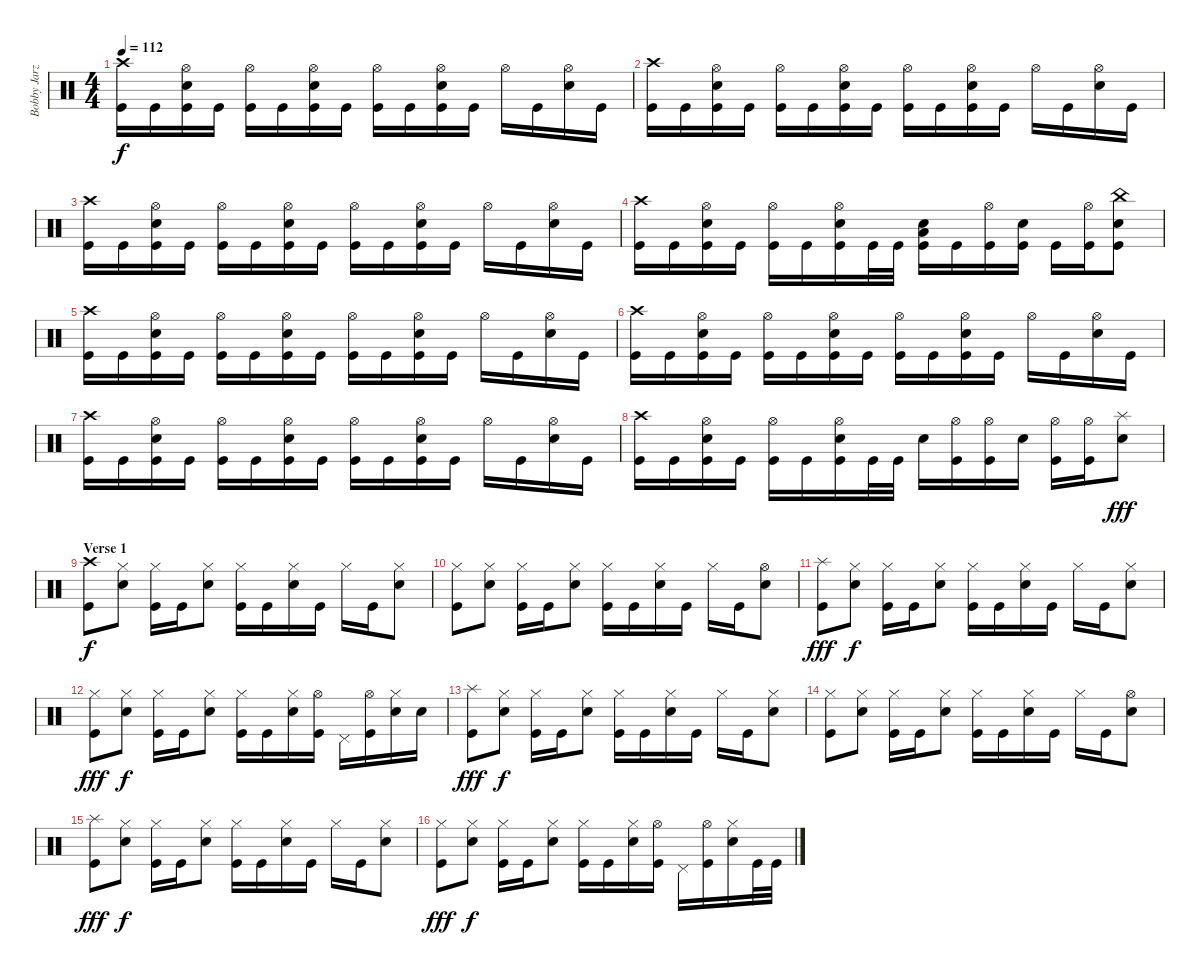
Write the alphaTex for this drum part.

\track ("Bobby Jarzombek" "Bobby Jarz") {instrument percussion}
\staff {score}
\articulation defaults
\ts (4 4)
\tempo 112
\clef neutral
\ks c
("Crash high (hit)" "Kick (hit)").16{dy f} "Kick (hit)".16 ("Hi-Hat (open)" "Electric Snare (hit)" "Kick (hit)").16 "Kick (hit)".16 ("Hi-Hat (open)" "Kick (hit)").16 "Kick (hit)".16 ("Hi-Hat (open)" "Electric Snare (hit)" "Kick (hit)").16 "Kick (hit)".16 ("Hi-Hat (open)" "Kick (hit)").16 "Kick (hit)".16 ("Hi-Hat (open)" "Electric Snare (hit)" "Kick (hit)").16 "Kick (hit)".16 "Hi-Hat (open)".16 "Kick (hit)".16 ("Hi-Hat (open)" "Electric Snare (hit)").16 "Kick (hit)".16 |
("Crash high (hit)" "Kick (hit)").16 "Kick (hit)".16 ("Hi-Hat (open)" "Electric Snare (hit)" "Kick (hit)").16 "Kick (hit)".16 ("Hi-Hat (open)" "Kick (hit)").16 "Kick (hit)".16 ("Hi-Hat (open)" "Electric Snare (hit)" "Kick (hit)").16 "Kick (hit)".16 ("Hi-Hat (open)" "Kick (hit)").16 "Kick (hit)".16 ("Hi-Hat (open)" "Electric Snare (hit)" "Kick (hit)").16 "Kick (hit)".16 "Hi-Hat (open)".16 "Kick (hit)".16 ("Hi-Hat (open)" "Electric Snare (hit)").16 "Kick (hit)".16 |
("Crash high (hit)" "Kick (hit)").16 "Kick (hit)".16 ("Hi-Hat (open)" "Electric Snare (hit)" "Kick (hit)").16 "Kick (hit)".16 ("Hi-Hat (open)" "Kick (hit)").16 "Kick (hit)".16 ("Hi-Hat (open)" "Electric Snare (hit)" "Kick (hit)").16 "Kick (hit)".16 ("Hi-Hat (open)" "Kick (hit)").16 "Kick (hit)".16 ("Hi-Hat (open)" "Electric Snare (hit)" "Kick (hit)").16 "Kick (hit)".16 "Hi-Hat (open)".16 "Kick (hit)".16 ("Hi-Hat (open)" "Electric Snare (hit)").16 "Kick (hit)".16 |
("Crash high (hit)" "Kick (hit)").16 "Kick (hit)".16 ("Hi-Hat (open)" "Electric Snare (hit)" "Kick (hit)").16 "Kick (hit)".16 ("Hi-Hat (open)" "Kick (hit)").16 "Kick (hit)".16 ("Hi-Hat (open)" "Electric Snare (hit)" "Kick (hit)").16 "Kick (hit)".32 "Kick (hit)".32 ("Low Tom (hit)" "Electric Snare (hit)" "Kick (hit)").16 "Kick (hit)".16 ("Hi-Hat (open)" "Kick (hit)").16 ("Electric Snare (hit)" "Kick (hit)").16 "Kick (hit)".16 ("Hi-Hat (open)" "Kick (hit)").16 ("China (hit)" "Electric Snare (hit)" "Kick (hit)").8 |
("Crash high (hit)" "Kick (hit)").16 "Kick (hit)".16 ("Hi-Hat (open)" "Electric Snare (hit)" "Kick (hit)").16 "Kick (hit)".16 ("Hi-Hat (open)" "Kick (hit)").16 "Kick (hit)".16 ("Hi-Hat (open)" "Electric Snare (hit)" "Kick (hit)").16 "Kick (hit)".16 ("Hi-Hat (open)" "Kick (hit)").16 "Kick (hit)".16 ("Hi-Hat (open)" "Electric Snare (hit)" "Kick (hit)").16 "Kick (hit)".16 "Hi-Hat (open)".16 "Kick (hit)".16 ("Hi-Hat (open)" "Electric Snare (hit)").16 "Kick (hit)".16 |
("Crash high (hit)" "Kick (hit)").16 "Kick (hit)".16 ("Hi-Hat (open)" "Electric Snare (hit)" "Kick (hit)").16 "Kick (hit)".16 ("Hi-Hat (open)" "Kick (hit)").16 "Kick (hit)".16 ("Hi-Hat (open)" "Electric Snare (hit)" "Kick (hit)").16 "Kick (hit)".16 ("Hi-Hat (open)" "Kick (hit)").16 "Kick (hit)".16 ("Hi-Hat (open)" "Electric Snare (hit)" "Kick (hit)").16 "Kick (hit)".16 "Hi-Hat (open)".16 "Kick (hit)".16 ("Hi-Hat (open)" "Electric Snare (hit)").16 "Kick (hit)".16 |
("Crash high (hit)" "Kick (hit)").16 "Kick (hit)".16 ("Hi-Hat (open)" "Electric Snare (hit)" "Kick (hit)").16 "Kick (hit)".16 ("Hi-Hat (open)" "Kick (hit)").16 "Kick (hit)".16 ("Hi-Hat (open)" "Electric Snare (hit)" "Kick (hit)").16 "Kick (hit)".16 ("Hi-Hat (open)" "Kick (hit)").16 "Kick (hit)".16 ("Hi-Hat (open)" "Electric Snare (hit)" "Kick (hit)").16 "Kick (hit)".16 "Hi-Hat (open)".16 "Kick (hit)".16 ("Hi-Hat (open)" "Electric Snare (hit)").16 "Kick (hit)".16 |
("Crash high (hit)" "Kick (hit)").16 "Kick (hit)".16 ("Hi-Hat (open)" "Electric Snare (hit)" "Kick (hit)").16 "Kick (hit)".16 ("Hi-Hat (open)" "Kick (hit)").16 "Kick (hit)".16 ("Hi-Hat (open)" "Electric Snare (hit)" "Kick (hit)").16 "Kick (hit)".32 "Kick (hit)".32 "Electric Snare (hit)".16 ("Hi-Hat (open)" "Kick (hit)").16 ("Hi-Hat (open)" "Kick (hit)").16 "Electric Snare (hit)".16 ("Hi-Hat (open)" "Kick (hit)").16 ("Hi-Hat (open)" "Kick (hit)").16 ("Splash (hit)" "Electric Snare (hit)").8{dy fff} |
\section ("" "Verse 1")
("Crash high (hit)" "Kick (hit)").8{dy f} ("Hi-Hat (closed)" "Electric Snare (hit)").8 ("Hi-Hat (closed)" "Kick (hit)").16 "Kick (hit)".16 ("Hi-Hat (closed)" "Electric Snare (hit)").8 ("Hi-Hat (closed)" "Kick (hit)").16 "Kick (hit)".16 ("Hi-Hat (closed)" "Electric Snare (hit)").16 "Kick (hit)".16 "Hi-Hat (closed)".16 "Kick (hit)".16 ("Hi-Hat (closed)" "Electric Snare (hit)").8 |
("Hi-Hat (closed)" "Kick (hit)").8 ("Hi-Hat (closed)" "Electric Snare (hit)").8 ("Hi-Hat (closed)" "Kick (hit)").16 "Kick (hit)".16 ("Hi-Hat (closed)" "Electric Snare (hit)").8 ("Hi-Hat (closed)" "Kick (hit)").16 "Kick (hit)".16 ("Hi-Hat (closed)" "Electric Snare (hit)").16 "Kick (hit)".16 "Hi-Hat (closed)".16 "Kick (hit)".16 ("Hi-Hat (open)" "Electric Snare (hit)").8 |
("Splash (hit)" "Kick (hit)").8{dy fff} ("Hi-Hat (closed)" "Electric Snare (hit)").8{dy f} ("Hi-Hat (closed)" "Kick (hit)").16 "Kick (hit)".16 ("Hi-Hat (closed)" "Electric Snare (hit)").8 ("Hi-Hat (closed)" "Kick (hit)").16 "Kick (hit)".16 ("Hi-Hat (closed)" "Electric Snare (hit)").16 "Kick (hit)".16 "Hi-Hat (closed)".16 "Kick (hit)".16 ("Hi-Hat (closed)" "Electric Snare (hit)").8 |
("Hi-Hat (closed)" "Kick (hit)").8{dy fff} ("Hi-Hat (closed)" "Electric Snare (hit)").8{dy f} ("Hi-Hat (closed)" "Kick (hit)").16 "Kick (hit)".16 ("Hi-Hat (closed)" "Electric Snare (hit)").8 ("Hi-Hat (closed)" "Kick (hit)").16 "Kick (hit)".16 ("Hi-Hat (closed)" "Electric Snare (hit)").16 ("Hi-Hat (open)" "Kick (hit)").16 "Pedal Hi-Hat (hit)".16 ("Hi-Hat (open)" "Kick (hit)").16 ("Hi-Hat (closed)" "Electric Snare (hit)").16 "Electric Snare (hit)".16 |
("Splash (hit)" "Kick (hit)").8{dy fff} ("Hi-Hat (closed)" "Electric Snare (hit)").8{dy f} ("Hi-Hat (closed)" "Kick (hit)").16 "Kick (hit)".16 ("Hi-Hat (closed)" "Electric Snare (hit)").8 ("Hi-Hat (closed)" "Kick (hit)").16 "Kick (hit)".16 ("Hi-Hat (closed)" "Electric Snare (hit)").16 "Kick (hit)".16 "Hi-Hat (closed)".16 "Kick (hit)".16 ("Hi-Hat (closed)" "Electric Snare (hit)").8 |
("Hi-Hat (closed)" "Kick (hit)").8 ("Hi-Hat (closed)" "Electric Snare (hit)").8 ("Hi-Hat (closed)" "Kick (hit)").16 "Kick (hit)".16 ("Hi-Hat (closed)" "Electric Snare (hit)").8 ("Hi-Hat (closed)" "Kick (hit)").16 "Kick (hit)".16 ("Hi-Hat (closed)" "Electric Snare (hit)").16 "Kick (hit)".16 "Hi-Hat (closed)".16 "Kick (hit)".16 ("Hi-Hat (open)" "Electric Snare (hit)").8 |
("Splash (hit)" "Kick (hit)").8{dy fff} ("Hi-Hat (closed)" "Electric Snare (hit)").8{dy f} ("Hi-Hat (closed)" "Kick (hit)").16 "Kick (hit)".16 ("Hi-Hat (closed)" "Electric Snare (hit)").8 ("Hi-Hat (closed)" "Kick (hit)").16 "Kick (hit)".16 ("Hi-Hat (closed)" "Electric Snare (hit)").16 "Kick (hit)".16 "Hi-Hat (closed)".16 "Kick (hit)".16 ("Hi-Hat (closed)" "Electric Snare (hit)").8 |
("Hi-Hat (closed)" "Kick (hit)").8{dy fff} ("Hi-Hat (closed)" "Electric Snare (hit)").8{dy f} ("Hi-Hat (closed)" "Kick (hit)").16 "Kick (hit)".16 ("Hi-Hat (closed)" "Electric Snare (hit)").8 ("Hi-Hat (closed)" "Kick (hit)").16 "Kick (hit)".16 ("Hi-Hat (closed)" "Electric Snare (hit)").16 ("Hi-Hat (open)" "Kick (hit)").16 "Pedal Hi-Hat (hit)".16 ("Hi-Hat (open)" "Kick (hit)").16 ("Hi-Hat (closed)" "Electric Snare (hit)").16 "Kick (hit)".32 "Kick (hit)".32
